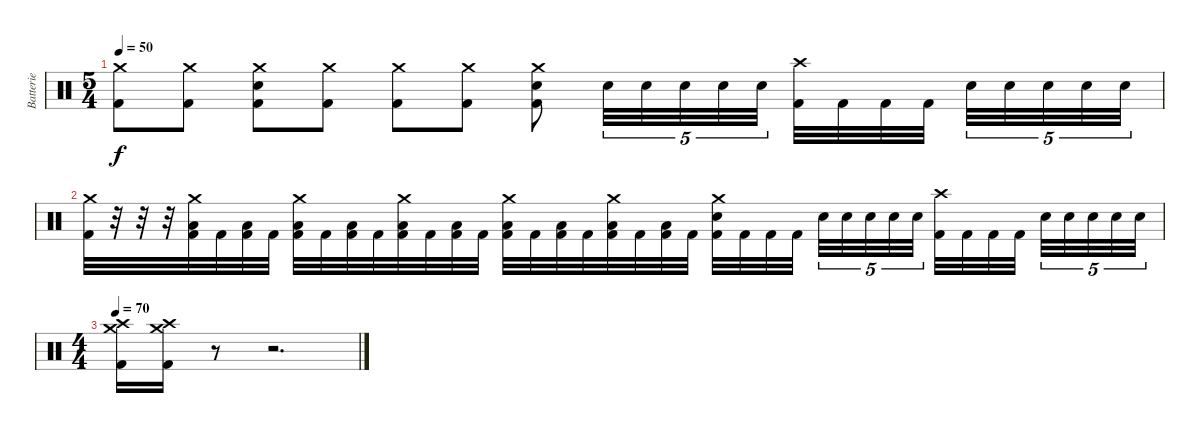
\track ("Batterie" "Batterie") {instrument percussion}
\staff {score}
\articulation defaults
\ts (5 4)
\tempo 50
\clef neutral
\ks c
("Crash medium (hit)" "Kick (hit) 2").8{dy f} ("Crash medium (hit)" "Kick (hit) 2").8 ("Crash medium (hit)" "Snare (hit) 2" "Kick (hit) 2").8 ("Crash medium (hit)" "Kick (hit) 2").8 ("Crash medium (hit)" "Kick (hit) 2").8 ("Crash medium (hit)" "Kick (hit) 2").8 ("Crash medium (hit)" "Snare (hit) 2" "Kick (hit) 2").8 "Snare (hit) 2".32{tu (5 4)} "Snare (hit) 2".32{tu (5 4)} "Snare (hit) 2".32{tu (5 4)} "Snare (hit) 2".32{tu (5 4)} "Snare (hit) 2".32{tu (5 4)} ("Crash high (hit)" "Kick (hit) 2").32 "Kick (hit) 2".32 "Kick (hit) 2".32 "Kick (hit) 2".32{beam splitsecondary} "Snare (hit) 2".32{tu (5 4)} "Snare (hit) 2".32{tu (5 4)} "Snare (hit) 2".32{tu (5 4)} "Snare (hit) 2".32{tu (5 4)} "Snare (hit) 2".32{tu (5 4)} |
("Crash medium (hit)" "Kick (hit) 2").32 r.32 r.32 r.32 ("Crash medium (hit)" "Low Tom (hit)" "Kick (hit) 2").32 "Kick (hit) 2".32 ("Low Tom (hit)" "Kick (hit) 2").32 "Kick (hit) 2".32 ("Crash medium (hit)" "Low Tom (hit)" "Kick (hit) 2").32 "Kick (hit) 2".32 ("Low Tom (hit)" "Kick (hit) 2").32 "Kick (hit) 2".32 ("Crash medium (hit)" "Low Tom (hit)" "Kick (hit) 2").32 "Kick (hit) 2".32 ("Low Tom (hit)" "Kick (hit) 2").32 "Kick (hit) 2".32 ("Crash medium (hit)" "Low Tom (hit)" "Kick (hit) 2").32 "Kick (hit) 2".32 ("Low Tom (hit)" "Kick (hit) 2").32 "Kick (hit) 2".32 ("Crash medium (hit)" "Low Tom (hit)" "Kick (hit) 2").32 "Kick (hit) 2".32 ("Low Tom (hit)" "Kick (hit) 2").32 "Kick (hit) 2".32 ("Crash medium (hit)" "Snare (hit) 2" "Kick (hit) 2").32 "Kick (hit) 2".32 "Kick (hit) 2".32 "Kick (hit) 2".32{beam splitsecondary} "Snare (hit) 2".32{tu (5 4)} "Snare (hit) 2".32{tu (5 4)} "Snare (hit) 2".32{tu (5 4)} "Snare (hit) 2".32{tu (5 4)} "Snare (hit) 2".32{tu (5 4)} ("Crash high (hit)" "Kick (hit) 2").32 "Kick (hit) 2".32 "Kick (hit) 2".32 "Kick (hit) 2".32{beam splitsecondary} "Snare (hit) 2".32{tu (5 4)} "Snare (hit) 2".32{tu (5 4)} "Snare (hit) 2".32{tu (5 4)} "Snare (hit) 2".32{tu (5 4)} "Snare (hit) 2".32{tu (5 4)} |
\ts (4 4)
\tempo 70
("Crash medium (hit)" "Crash high (hit)" "Kick (hit) 2").16 ("Crash medium (hit)" "Crash high (hit)" "Kick (hit) 2").16 r.8 r.2{d}
